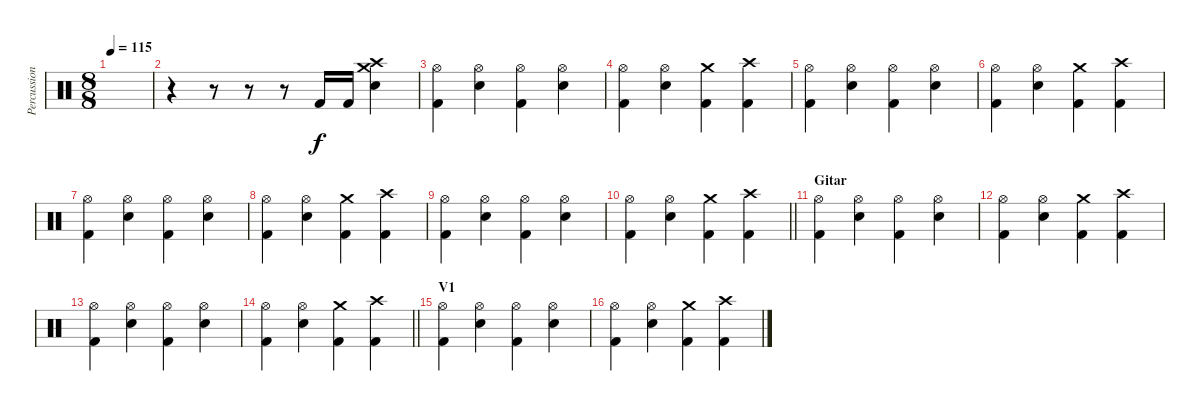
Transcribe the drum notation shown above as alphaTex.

\track ("Percussion" "Percussion") {instrument percussion}
\staff {score}
\articulation defaults
\ts (8 8)
\tempo 115
\clef neutral
\ks c
|
r.4 r.8 r.8 r.8 "Kick (hit) 2".16 "Kick (hit) 2".16 ("Snare (hit) 2" "Crash medium (hit)" "Crash high (hit)").4 |
("Hi-Hat (open)" "Kick (hit) 2").4 ("Hi-Hat (open)" "Snare (hit) 2").4 ("Hi-Hat (open)" "Kick (hit) 2").4 ("Hi-Hat (open)" "Snare (hit) 2").4 |
("Hi-Hat (open)" "Kick (hit) 2").4 ("Hi-Hat (open)" "Snare (hit) 2").4 ("Crash medium (hit)" "Kick (hit) 2").4 ("Crash high (hit)" "Kick (hit) 2").4 |
("Hi-Hat (open)" "Kick (hit) 2").4 ("Hi-Hat (open)" "Snare (hit) 2").4 ("Hi-Hat (open)" "Kick (hit) 2").4 ("Hi-Hat (open)" "Snare (hit) 2").4 |
("Hi-Hat (open)" "Kick (hit) 2").4 ("Hi-Hat (open)" "Snare (hit) 2").4 ("Crash medium (hit)" "Kick (hit) 2").4 ("Crash high (hit)" "Kick (hit) 2").4 |
("Hi-Hat (open)" "Kick (hit) 2").4 ("Hi-Hat (open)" "Snare (hit) 2").4 ("Hi-Hat (open)" "Kick (hit) 2").4 ("Hi-Hat (open)" "Snare (hit) 2").4 |
("Hi-Hat (open)" "Kick (hit) 2").4 ("Hi-Hat (open)" "Snare (hit) 2").4 ("Crash medium (hit)" "Kick (hit) 2").4 ("Crash high (hit)" "Kick (hit) 2").4 |
("Hi-Hat (open)" "Kick (hit) 2").4 ("Hi-Hat (open)" "Snare (hit) 2").4 ("Hi-Hat (open)" "Kick (hit) 2").4 ("Hi-Hat (open)" "Snare (hit) 2").4 |
\barLineRight lightlight
("Hi-Hat (open)" "Kick (hit) 2").4 ("Hi-Hat (open)" "Snare (hit) 2").4 ("Crash medium (hit)" "Kick (hit) 2").4 ("Crash high (hit)" "Kick (hit) 2").4 |
\section ("" "Gitar")
("Hi-Hat (open)" "Kick (hit) 2").4 ("Hi-Hat (open)" "Snare (hit) 2").4 ("Hi-Hat (open)" "Kick (hit) 2").4 ("Hi-Hat (open)" "Snare (hit) 2").4 |
("Hi-Hat (open)" "Kick (hit) 2").4 ("Hi-Hat (open)" "Snare (hit) 2").4 ("Crash medium (hit)" "Kick (hit) 2").4 ("Crash high (hit)" "Kick (hit) 2").4 |
("Hi-Hat (open)" "Kick (hit) 2").4 ("Hi-Hat (open)" "Snare (hit) 2").4 ("Hi-Hat (open)" "Kick (hit) 2").4 ("Hi-Hat (open)" "Snare (hit) 2").4 |
\barLineRight lightlight
("Hi-Hat (open)" "Kick (hit) 2").4 ("Hi-Hat (open)" "Snare (hit) 2").4 ("Crash medium (hit)" "Kick (hit) 2").4 ("Crash high (hit)" "Kick (hit) 2").4 |
\section ("" "V1")
("Hi-Hat (open)" "Kick (hit) 2").4 ("Hi-Hat (open)" "Snare (hit) 2").4 ("Hi-Hat (open)" "Kick (hit) 2").4 ("Hi-Hat (open)" "Snare (hit) 2").4 |
("Hi-Hat (open)" "Kick (hit) 2").4 ("Hi-Hat (open)" "Snare (hit) 2").4 ("Crash medium (hit)" "Kick (hit) 2").4 ("Crash high (hit)" "Kick (hit) 2").4
